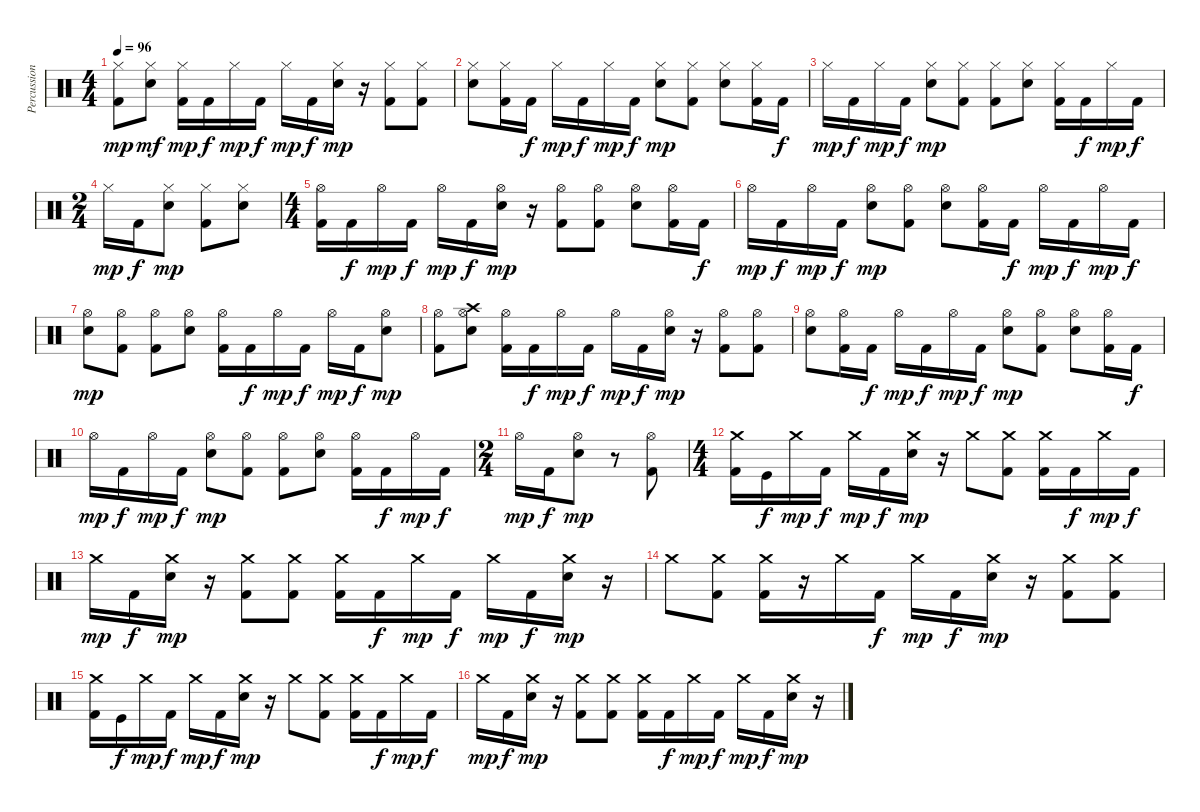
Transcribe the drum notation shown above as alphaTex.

\track ("Percussions" "Percussion") {instrument percussion}
\staff {score}
\articulation defaults
\ts (4 4)
\tempo 96
\clef neutral
\ks c
("Hi-Hat (closed)" "Kick (hit) 2").8{dy mp} ("Hi-Hat (closed)" "Snare (hit) 2").8{dy mf} ("Hi-Hat (closed)" "Kick (hit) 2").16{dy mp} "Kick (hit) 2".16{dy f} "Hi-Hat (closed)".16{dy mp} "Kick (hit) 2".16{dy f} "Hi-Hat (closed)".16{dy mp} "Kick (hit) 2".16{dy f} ("Hi-Hat (closed)" "Snare (hit) 2").16{dy mp} r.16 ("Hi-Hat (closed)" "Kick (hit) 2").8 ("Hi-Hat (closed)" "Kick (hit) 2").8 |
("Hi-Hat (closed)" "Snare (hit) 2").8 ("Hi-Hat (closed)" "Kick (hit) 2").16 "Kick (hit) 2".16{dy f} "Hi-Hat (closed)".16{dy mp} "Kick (hit) 2".16{dy f} "Hi-Hat (closed)".16{dy mp} "Kick (hit) 2".16{dy f} ("Hi-Hat (closed)" "Snare (hit) 2").8{dy mp} ("Hi-Hat (closed)" "Kick (hit) 2").8 ("Hi-Hat (closed)" "Snare (hit) 2").8 ("Hi-Hat (closed)" "Kick (hit) 2").16 "Kick (hit) 2".16{dy f} |
"Hi-Hat (closed)".16{dy mp} "Kick (hit) 2".16{dy f} "Hi-Hat (closed)".16{dy mp} "Kick (hit) 2".16{dy f} ("Hi-Hat (closed)" "Snare (hit) 2").8{dy mp} ("Hi-Hat (closed)" "Kick (hit) 2").8 ("Hi-Hat (closed)" "Kick (hit) 2").8 ("Hi-Hat (closed)" "Snare (hit) 2").8 ("Hi-Hat (closed)" "Kick (hit) 2").16 "Kick (hit) 2".16{dy f} "Hi-Hat (closed)".16{dy mp} "Kick (hit) 2".16{dy f} |
\ts (2 4)
"Hi-Hat (closed)".16{dy mp} "Kick (hit) 2".16{dy f} ("Hi-Hat (closed)" "Snare (hit) 2").8{dy mp} ("Hi-Hat (closed)" "Kick (hit) 2").8 ("Hi-Hat (closed)" "Snare (hit) 2").8 |
\ts (4 4)
("Hi-Hat (open)" "Kick (hit) 2").16 "Kick (hit) 2".16{dy f} "Hi-Hat (open)".16{dy mp} "Kick (hit) 2".16{dy f} "Hi-Hat (open)".16{dy mp} "Kick (hit) 2".16{dy f} ("Hi-Hat (open)" "Snare (hit) 2").16{dy mp} r.16 ("Hi-Hat (open)" "Kick (hit) 2").8 ("Hi-Hat (open)" "Kick (hit) 2").8 ("Hi-Hat (open)" "Snare (hit) 2").8 ("Hi-Hat (open)" "Kick (hit) 2").16 "Kick (hit) 2".16{dy f} |
"Hi-Hat (open)".16{dy mp} "Kick (hit) 2".16{dy f} "Hi-Hat (open)".16{dy mp} "Kick (hit) 2".16{dy f} ("Hi-Hat (open)" "Snare (hit) 2").8{dy mp} ("Hi-Hat (open)" "Kick (hit) 2").8 ("Hi-Hat (open)" "Snare (hit) 2").8 ("Hi-Hat (open)" "Kick (hit) 2").16 "Kick (hit) 2".16{dy f} "Hi-Hat (open)".16{dy mp} "Kick (hit) 2".16{dy f} "Hi-Hat (open)".16{dy mp} "Kick (hit) 2".16{dy f} |
("Hi-Hat (open)" "Snare (hit) 2").8{dy mp} ("Hi-Hat (open)" "Kick (hit) 2").8 ("Hi-Hat (open)" "Kick (hit) 2").8 ("Hi-Hat (open)" "Snare (hit) 2").8 ("Hi-Hat (open)" "Kick (hit) 2").16 "Kick (hit) 2".16{dy f} "Hi-Hat (open)".16{dy mp} "Kick (hit) 2".16{dy f} "Hi-Hat (open)".16{dy mp} "Kick (hit) 2".16{dy f} ("Hi-Hat (open)" "Snare (hit) 2").8{dy mp} |
("Hi-Hat (open)" "Kick (hit) 2").8 ("Hi-Hat (open)" "Crash high (hit)" "Snare (hit) 2").8 ("Hi-Hat (open)" "Kick (hit) 2").16 "Kick (hit) 2".16{dy f} "Hi-Hat (open)".16{dy mp} "Kick (hit) 2".16{dy f} "Hi-Hat (open)".16{dy mp} "Kick (hit) 2".16{dy f} ("Hi-Hat (open)" "Snare (hit) 2").16{dy mp} r.16 ("Hi-Hat (open)" "Kick (hit) 2").8 ("Hi-Hat (open)" "Kick (hit) 2").8 |
("Hi-Hat (open)" "Snare (hit) 2").8 ("Hi-Hat (open)" "Kick (hit) 2").16 "Kick (hit) 2".16{dy f} "Hi-Hat (open)".16{dy mp} "Kick (hit) 2".16{dy f} "Hi-Hat (open)".16{dy mp} "Kick (hit) 2".16{dy f} ("Hi-Hat (open)" "Snare (hit) 2").8{dy mp} ("Hi-Hat (open)" "Kick (hit) 2").8 ("Hi-Hat (open)" "Snare (hit) 2").8 ("Hi-Hat (open)" "Kick (hit) 2").16 "Kick (hit) 2".16{dy f} |
"Hi-Hat (open)".16{dy mp} "Kick (hit) 2".16{dy f} "Hi-Hat (open)".16{dy mp} "Kick (hit) 2".16{dy f} ("Hi-Hat (open)" "Snare (hit) 2").8{dy mp} ("Hi-Hat (open)" "Kick (hit) 2").8 ("Hi-Hat (open)" "Kick (hit) 2").8 ("Hi-Hat (open)" "Snare (hit) 2").8 ("Hi-Hat (open)" "Kick (hit) 2").16 "Kick (hit) 2".16{dy f} "Hi-Hat (open)".16{dy mp} "Kick (hit) 2".16{dy f} |
\ts (2 4)
"Hi-Hat (open)".16{dy mp} "Kick (hit) 2".16{dy f} ("Hi-Hat (open)" "Snare (hit) 2").8{dy mp} r.8 ("Hi-Hat (open)" "Kick (hit) 2").8 |
\ts (4 4)
("Crash medium (hit)" "Kick (hit) 2").16 "Kick (hit)".16{dy f} "Crash medium (hit)".16{dy mp} "Kick (hit) 2".16{dy f} "Crash medium (hit)".16{dy mp} "Kick (hit) 2".16{dy f} ("Crash medium (hit)" "Snare (hit) 2").16{dy mp} r.16 "Crash medium (hit)".8 ("Crash medium (hit)" "Kick (hit) 2").8 ("Crash medium (hit)" "Kick (hit) 2").16 "Kick (hit) 2".16{dy f} "Crash medium (hit)".16{dy mp} "Kick (hit) 2".16{dy f} |
"Crash medium (hit)".16{dy mp} "Kick (hit) 2".16{dy f} ("Crash medium (hit)" "Snare (hit) 2").16{dy mp} r.16 ("Crash medium (hit)" "Kick (hit) 2").8 ("Crash medium (hit)" "Kick (hit) 2").8 ("Crash medium (hit)" "Kick (hit) 2").16 "Kick (hit) 2".16{dy f} "Crash medium (hit)".16{dy mp} "Kick (hit) 2".16{dy f} "Crash medium (hit)".16{dy mp} "Kick (hit) 2".16{dy f} ("Crash medium (hit)" "Snare (hit) 2").16{dy mp} r.16 |
"Crash medium (hit)".8 ("Crash medium (hit)" "Kick (hit) 2").8 ("Crash medium (hit)" "Kick (hit) 2").16 r.16 "Crash medium (hit)".16 "Kick (hit) 2".16{dy f} "Crash medium (hit)".16{dy mp} "Kick (hit) 2".16{dy f} ("Crash medium (hit)" "Snare (hit) 2").16{dy mp} r.16 ("Crash medium (hit)" "Kick (hit) 2").8 ("Crash medium (hit)" "Kick (hit) 2").8 |
("Crash medium (hit)" "Kick (hit) 2").16 "Kick (hit)".16{dy f} "Crash medium (hit)".16{dy mp} "Kick (hit) 2".16{dy f} "Crash medium (hit)".16{dy mp} "Kick (hit) 2".16{dy f} ("Crash medium (hit)" "Snare (hit) 2").16{dy mp} r.16 "Crash medium (hit)".8 ("Crash medium (hit)" "Kick (hit) 2").8 ("Crash medium (hit)" "Kick (hit) 2").16 "Kick (hit) 2".16{dy f} "Crash medium (hit)".16{dy mp} "Kick (hit) 2".16{dy f} |
"Crash medium (hit)".16{dy mp} "Kick (hit) 2".16{dy f} ("Crash medium (hit)" "Snare (hit) 2").16{dy mp} r.16 ("Crash medium (hit)" "Kick (hit) 2").8 ("Crash medium (hit)" "Kick (hit) 2").8 ("Crash medium (hit)" "Kick (hit) 2").16 "Kick (hit) 2".16{dy f} "Crash medium (hit)".16{dy mp} "Kick (hit) 2".16{dy f} "Crash medium (hit)".16{dy mp} "Kick (hit) 2".16{dy f} ("Crash medium (hit)" "Snare (hit) 2").16{dy mp} r.16
